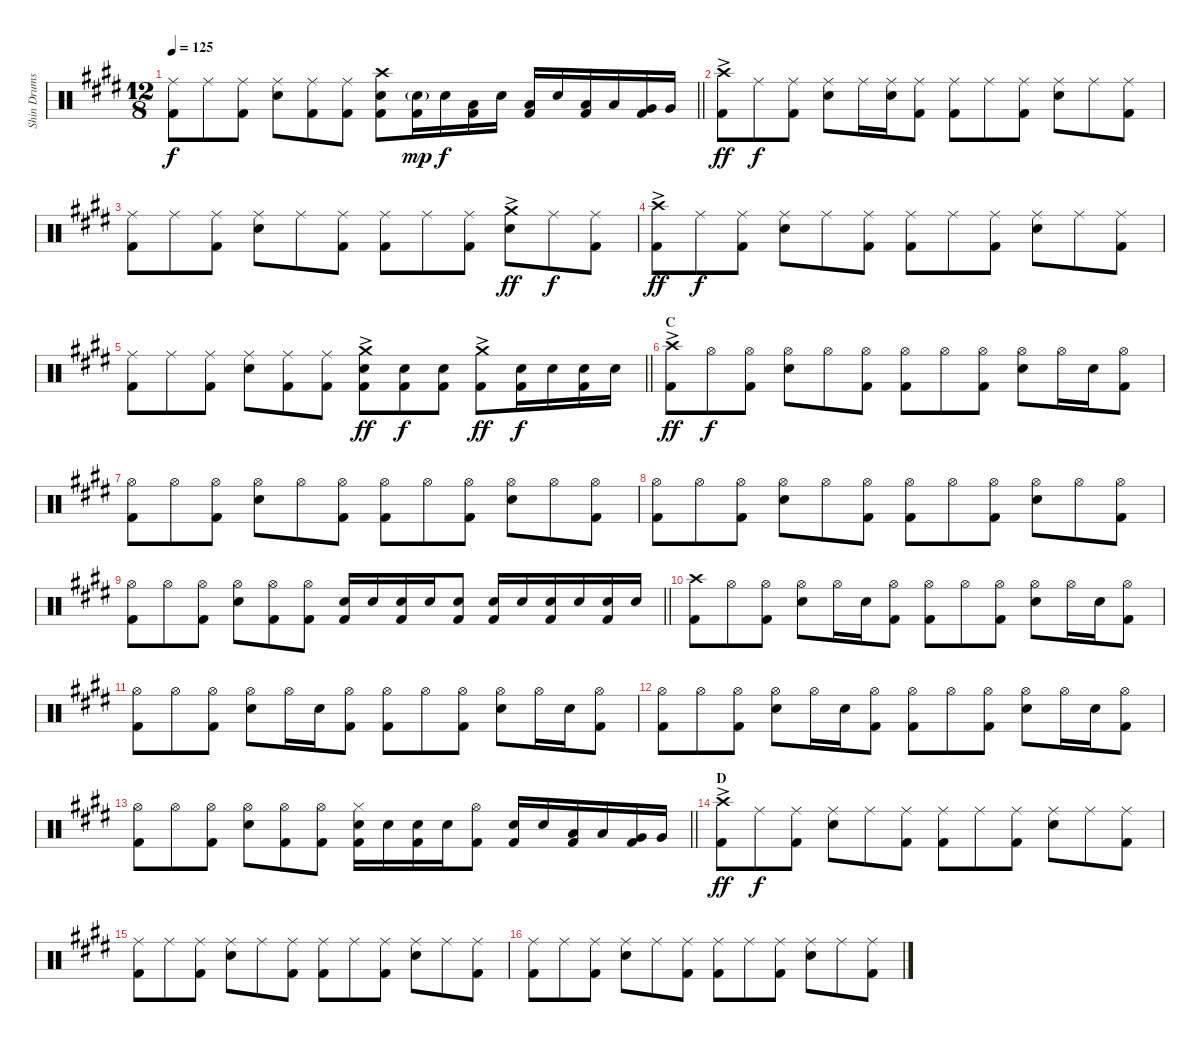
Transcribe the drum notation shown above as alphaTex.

\track ("Shin Drums" "Shin Drums") {instrument percussion}
\staff {score}
\articulation defaults
\ts (12 8)
\tempo 125
\clef neutral
\barLineRight lightlight
\ks e
("Ride (middle)" "Kick (hit) 2").8{dy f} "Ride (middle)".8 ("Ride (middle)" "Kick (hit) 2").8 ("Ride (middle)" "Snare (hit) 2").8 ("Ride (middle)" "Kick (hit) 2").8 ("Ride (middle)" "Kick (hit) 2").8 ("Crash high (hit)" "Snare (hit) 2" "Kick (hit) 2").8 ("Kick (hit) 2" "Snare (hit) 2"{g}).16{dy mp} "Snare (hit) 2".16{dy f} ("Low Tom (hit)" "Kick (hit) 2").16 "Snare (hit) 2".16 ("Low Tom (hit)" "Kick (hit) 2").16 "Snare (hit) 2".16 ("Low Tom (hit)" "Kick (hit) 2").16 "Low Tom (hit)".16 ("Very Low Tom (hit)" "Kick (hit) 2").16 "Very Low Tom (hit)".16 |
("Crash high (hit)"{ac} "Kick (hit) 2").8{dy ff} "Ride (middle)".8{dy f} ("Ride (middle)" "Kick (hit) 2").8 ("Ride (middle)" "Snare (hit) 2").8 "Ride (middle)".16 ("Ride (middle)" "Snare (hit) 2").16 ("Ride (middle)" "Kick (hit) 2").8 ("Ride (middle)" "Kick (hit) 2").8 "Ride (middle)".8 ("Ride (middle)" "Kick (hit) 2").8 ("Ride (middle)" "Snare (hit) 2").8 "Ride (middle)".8 ("Ride (middle)" "Kick (hit) 2").8 |
("Ride (middle)" "Kick (hit) 2").8 "Ride (middle)".8 ("Ride (middle)" "Kick (hit) 2").8 ("Ride (middle)" "Snare (hit) 2").8 "Ride (middle)".8 ("Ride (middle)" "Kick (hit) 2").8 ("Ride (middle)" "Kick (hit) 2").8 "Ride (middle)".8 ("Ride (middle)" "Kick (hit) 2").8 ("Crash medium (hit)"{ac} "Snare (hit) 2").8{dy ff} "Ride (middle)".8{dy f} ("Ride (middle)" "Kick (hit) 2").8 |
("Crash high (hit)"{ac} "Kick (hit) 2").8{dy ff} "Ride (middle)".8{dy f} ("Ride (middle)" "Kick (hit) 2").8 ("Ride (middle)" "Snare (hit) 2").8 "Ride (middle)".8 ("Ride (middle)" "Kick (hit) 2").8 ("Ride (middle)" "Kick (hit) 2").8 "Ride (middle)".8 ("Ride (middle)" "Kick (hit) 2").8 ("Ride (middle)" "Snare (hit) 2").8 "Ride (middle)".8 ("Ride (middle)" "Kick (hit) 2").8 |
\barLineRight lightlight
("Ride (middle)" "Kick (hit) 2").8 "Ride (middle)".8 ("Ride (middle)" "Kick (hit) 2").8 ("Ride (middle)" "Snare (hit) 2").8 ("Ride (middle)" "Kick (hit) 2").8 ("Ride (middle)" "Kick (hit) 2").8 ("Crash medium (hit)"{ac} "Snare (hit) 2" "Kick (hit) 2").8{dy ff} ("Snare (hit) 2" "Kick (hit) 2").8{dy f} ("Snare (hit) 2" "Kick (hit) 2").8 ("Crash medium (hit)"{ac} "Kick (hit) 2").8{dy ff} ("Snare (hit) 2" "Kick (hit) 2").16{dy f} "Snare (hit) 2".16 ("Snare (hit) 2" "Kick (hit) 2").16 "Snare (hit) 2".16 |
\section ("" "C")
("Crash high (hit)"{ac} "Kick (hit) 2").8{dy ff} "Hi-Hat (open)".8{dy f} ("Hi-Hat (open)" "Kick (hit) 2").8 ("Hi-Hat (open)" "Snare (hit) 2").8 "Hi-Hat (open)".8 ("Hi-Hat (open)" "Kick (hit) 2").8 ("Hi-Hat (open)" "Kick (hit) 2").8 "Hi-Hat (open)".8 ("Hi-Hat (open)" "Kick (hit) 2").8 ("Hi-Hat (open)" "Snare (hit) 2").8 "Hi-Hat (open)".16 "Snare (hit) 2".16 ("Hi-Hat (open)" "Kick (hit) 2").8 |
("Hi-Hat (open)" "Kick (hit) 2").8 "Hi-Hat (open)".8 ("Hi-Hat (open)" "Kick (hit) 2").8 ("Hi-Hat (open)" "Snare (hit) 2").8 "Hi-Hat (open)".8 ("Hi-Hat (open)" "Kick (hit) 2").8 ("Hi-Hat (open)" "Kick (hit) 2").8 "Hi-Hat (open)".8 ("Hi-Hat (open)" "Kick (hit) 2").8 ("Hi-Hat (open)" "Snare (hit) 2").8 "Hi-Hat (open)".8 ("Hi-Hat (open)" "Kick (hit) 2").8 |
("Hi-Hat (open)" "Kick (hit) 2").8 "Hi-Hat (open)".8 ("Hi-Hat (open)" "Kick (hit) 2").8 ("Hi-Hat (open)" "Snare (hit) 2").8 "Hi-Hat (open)".8 ("Hi-Hat (open)" "Kick (hit) 2").8 ("Hi-Hat (open)" "Kick (hit) 2").8 "Hi-Hat (open)".8 ("Hi-Hat (open)" "Kick (hit) 2").8 ("Hi-Hat (open)" "Snare (hit) 2").8 "Hi-Hat (open)".8 ("Hi-Hat (open)" "Kick (hit) 2").8 |
\barLineRight lightlight
("Hi-Hat (open)" "Kick (hit) 2").8 "Hi-Hat (open)".8 ("Hi-Hat (open)" "Kick (hit) 2").8 ("Hi-Hat (open)" "Snare (hit) 2").8 ("Hi-Hat (open)" "Kick (hit) 2").8 ("Hi-Hat (open)" "Kick (hit) 2").8 ("Snare (hit) 2" "Kick (hit) 2").16 "Snare (hit) 2".16 ("Snare (hit) 2" "Kick (hit) 2").16 "Snare (hit) 2".16 ("Snare (hit) 2" "Kick (hit) 2").8 ("Snare (hit) 2" "Kick (hit) 2").16 "Snare (hit) 2".16 ("Snare (hit) 2" "Kick (hit) 2").16 "Snare (hit) 2".16 ("Snare (hit) 2" "Kick (hit) 2").16 "Snare (hit) 2".16 |
("Crash high (hit)" "Kick (hit) 2").8 "Hi-Hat (open)".8 ("Hi-Hat (open)" "Kick (hit) 2").8 ("Hi-Hat (open)" "Snare (hit) 2").8 "Hi-Hat (open)".16 "Snare (hit) 2".16 ("Hi-Hat (open)" "Kick (hit) 2").8 ("Hi-Hat (open)" "Kick (hit) 2").8 "Hi-Hat (open)".8 ("Hi-Hat (open)" "Kick (hit) 2").8 ("Hi-Hat (open)" "Snare (hit) 2").8 "Hi-Hat (open)".16 "Snare (hit) 2".16 ("Hi-Hat (open)" "Kick (hit) 2").8 |
("Hi-Hat (open)" "Kick (hit) 2").8 "Hi-Hat (open)".8 ("Hi-Hat (open)" "Kick (hit) 2").8 ("Hi-Hat (open)" "Snare (hit) 2").8 "Hi-Hat (open)".16 "Snare (hit) 2".16 ("Hi-Hat (open)" "Kick (hit) 2").8 ("Hi-Hat (open)" "Kick (hit) 2").8 "Hi-Hat (open)".8 ("Hi-Hat (open)" "Kick (hit) 2").8 ("Hi-Hat (open)" "Snare (hit) 2").8 "Hi-Hat (open)".16 "Snare (hit) 2".16 ("Hi-Hat (open)" "Kick (hit) 2").8 |
("Hi-Hat (open)" "Kick (hit) 2").8 "Hi-Hat (open)".8 ("Hi-Hat (open)" "Kick (hit) 2").8 ("Hi-Hat (open)" "Snare (hit) 2").8 "Hi-Hat (open)".16 "Snare (hit) 2".16 ("Hi-Hat (open)" "Kick (hit) 2").8 ("Hi-Hat (open)" "Kick (hit) 2").8 "Hi-Hat (open)".8 ("Hi-Hat (open)" "Kick (hit) 2").8 ("Hi-Hat (open)" "Snare (hit) 2").8 "Hi-Hat (open)".16 "Snare (hit) 2".16 ("Hi-Hat (open)" "Kick (hit) 2").8 |
\barLineRight lightlight
("Hi-Hat (open)" "Kick (hit) 2").8 "Hi-Hat (open)".8 ("Hi-Hat (open)" "Kick (hit) 2").8 ("Hi-Hat (open)" "Snare (hit) 2").8 ("Hi-Hat (open)" "Kick (hit) 2").8 ("Hi-Hat (open)" "Kick (hit) 2").8 ("Hi-Hat (closed)" "Snare (hit) 2" "Kick (hit) 2").16 "Snare (hit) 2".16 ("Snare (hit) 2" "Kick (hit) 2").16 "Snare (hit) 2".16 ("Hi-Hat (open)" "Kick (hit) 2").8 ("Snare (hit) 2" "Kick (hit) 2").16 "Snare (hit) 2".16 ("Low Tom (hit)" "Kick (hit) 2").16 "Low Tom (hit)".16 ("Very Low Tom (hit)" "Kick (hit) 2").16 "Very Low Tom (hit)".16 |
\section ("" "D")
("Crash high (hit)"{ac} "Kick (hit) 2").8{dy ff} "Ride (middle)".8{dy f} ("Ride (middle)" "Kick (hit) 2").8 ("Ride (middle)" "Snare (hit) 2").8 "Ride (middle)".8 ("Ride (middle)" "Kick (hit) 2").8 ("Ride (middle)" "Kick (hit) 2").8 "Ride (middle)".8 ("Ride (middle)" "Kick (hit) 2").8 ("Ride (middle)" "Snare (hit) 2").8 "Ride (middle)".8 ("Ride (middle)" "Kick (hit) 2").8 |
("Ride (middle)" "Kick (hit) 2").8 "Ride (middle)".8 ("Ride (middle)" "Kick (hit) 2").8 ("Ride (middle)" "Snare (hit) 2").8 "Ride (middle)".8 ("Ride (middle)" "Kick (hit) 2").8 ("Ride (middle)" "Kick (hit) 2").8 "Ride (middle)".8 ("Ride (middle)" "Kick (hit) 2").8 ("Ride (middle)" "Snare (hit) 2").8 "Ride (middle)".8 ("Ride (middle)" "Kick (hit) 2").8 |
("Ride (middle)" "Kick (hit) 2").8 "Ride (middle)".8 ("Ride (middle)" "Kick (hit) 2").8 ("Ride (middle)" "Snare (hit) 2").8 "Ride (middle)".8 ("Ride (middle)" "Kick (hit) 2").8 ("Ride (middle)" "Kick (hit) 2").8 "Ride (middle)".8 ("Ride (middle)" "Kick (hit) 2").8 ("Ride (middle)" "Snare (hit) 2").8 "Ride (middle)".8 ("Ride (middle)" "Kick (hit) 2").8
